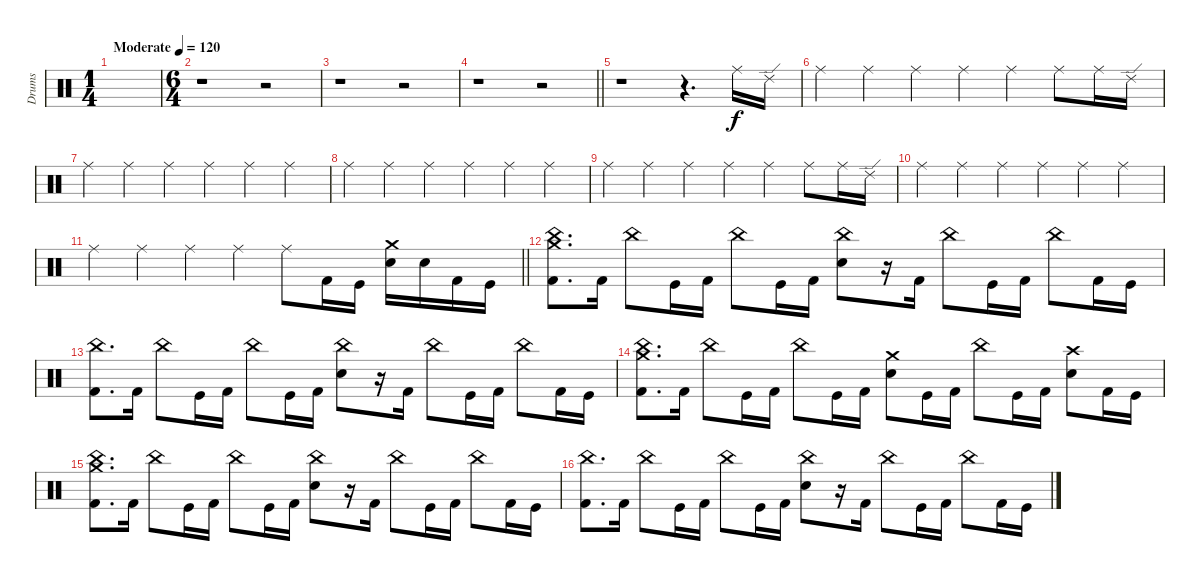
\track ("Drums" "Drums") {instrument percussion}
\staff {score}
\articulation defaults
\ts (1 4)
\tempo (120 "Moderate")
\clef neutral
\ks c
|
\ts (6 4)
r.1 r.2 |
r.1 r.2 |
\barLineRight lightlight
r.1 r.2 |
r.1 r.4{d} "Ride (middle)".16 "Ride (edge) 2".16 |
"Ride (middle)".4 "Ride (middle)".4 "Ride (middle)".4 "Ride (middle)".4 "Ride (middle)".4 "Ride (middle)".8 "Ride (middle)".16 "Ride (edge) 2".16 |
"Ride (middle)".4 "Ride (middle)".4 "Ride (middle)".4 "Ride (middle)".4 "Ride (middle)".4 "Ride (middle)".4 |
"Ride (middle)".4 "Ride (middle)".4 "Ride (middle)".4 "Ride (middle)".4 "Ride (middle)".4 "Ride (middle)".4 |
"Ride (middle)".4 "Ride (middle)".4 "Ride (middle)".4 "Ride (middle)".4 "Ride (middle)".4 "Ride (middle)".8 "Ride (middle)".16 "Ride (edge) 2".16 |
"Ride (middle)".4 "Ride (middle)".4 "Ride (middle)".4 "Ride (middle)".4 "Ride (middle)".4 "Ride (middle)".4 |
\barLineRight lightlight "Ride (middle)".4 "Ride (middle)".4 "Ride (middle)".4 "Ride (middle)".4 "Ride (middle)".8 "Kick (hit) 2".16 "Kick (hit)".16
("Crash medium (hit)" "Electric Snare (hit)").16 "Electric Snare (hit)".16 "Kick (hit) 2".16 "Kick (hit)".16 |
("Crash medium (hit)" "China (hit)" "Kick (hit) 2").8{d} "Kick (hit) 2".16 "China (hit)".8 "Kick (hit)".16 "Kick (hit) 2".16 "China (hit)".8 "Kick (hit)".16 "Kick (hit) 2".16 ("China (hit)" "Electric Snare (hit)").8 r.16 "Kick (hit) 2".16 "China (hit)".8 "Kick (hit)".16 "Kick (hit) 2".16 "China (hit)".8 "Kick (hit) 2".16 "Kick (hit)".16 |
("China (hit)" "Kick (hit) 2").8{d} "Kick (hit) 2".16 "China (hit)".8 "Kick (hit)".16 "Kick (hit) 2".16 "China (hit)".8 "Kick (hit)".16 "Kick (hit) 2".16 ("China (hit)" "Electric Snare (hit)").8 r.16 "Kick (hit) 2".16 "China (hit)".8 "Kick (hit)".16 "Kick (hit) 2".16 "China (hit)".8 "Kick (hit) 2".16 "Kick (hit)".16 |
("Crash medium (hit)" "China (hit)" "Kick (hit) 2").8{d} "Kick (hit) 2".16 "China (hit)".8 "Kick (hit)".16 "Kick (hit) 2".16 "China (hit)".8 "Kick (hit)".16 "Kick (hit) 2".16 ("Crash medium (hit)" "Electric Snare (hit)").8 "Kick (hit)".16 "Kick (hit) 2".16 "China (hit)".8 "Kick (hit)".16 "Kick (hit) 2".16 ("Crash high (hit)" "Electric Snare (hit)").8 "Kick (hit) 2".16 "Kick (hit)".16 |
("Crash medium (hit)" "China (hit)" "Kick (hit) 2").8{d} "Kick (hit) 2".16 "China (hit)".8 "Kick (hit)".16 "Kick (hit) 2".16 "China (hit)".8 "Kick (hit)".16 "Kick (hit) 2".16 ("China (hit)" "Electric Snare (hit)").8 r.16 "Kick (hit) 2".16 "China (hit)".8 "Kick (hit)".16 "Kick (hit) 2".16 "China (hit)".8 "Kick (hit) 2".16 "Kick (hit)".16 |
("China (hit)" "Kick (hit) 2").8{d} "Kick (hit) 2".16 "China (hit)".8 "Kick (hit)".16 "Kick (hit) 2".16 "China (hit)".8 "Kick (hit)".16 "Kick (hit) 2".16 ("China (hit)" "Electric Snare (hit)").8 r.16 "Kick (hit) 2".16 "China (hit)".8 "Kick (hit)".16 "Kick (hit) 2".16 "China (hit)".8 "Kick (hit) 2".16 "Kick (hit)".16
